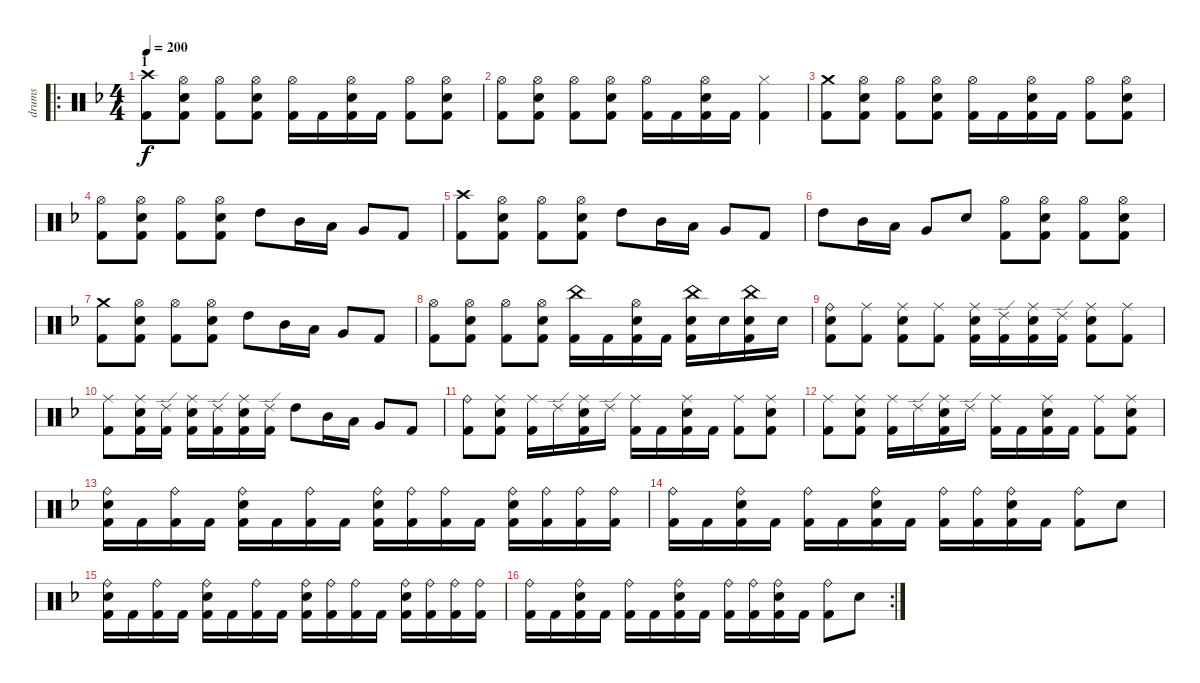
\track ("drums" "drums") {instrument percussion}
\staff {score}
\articulation defaults
\ro
\ts (4 4)
\section ("" "1")
\tempo 200
\clef neutral
\ks dminor
("Crash high (hit)" "Kick (hit) 2").8{dy f} ("Hi-Hat (open)" "Electric Snare (hit)" "Kick (hit) 2").8 ("Hi-Hat (open)" "Kick (hit) 2").8 ("Hi-Hat (open)" "Electric Snare (hit)" "Kick (hit) 2").8 ("Hi-Hat (open)" "Kick (hit) 2").16 "Kick (hit) 2".16 ("Hi-Hat (open)" "Electric Snare (hit)" "Kick (hit) 2").16 "Kick (hit) 2".16 ("Hi-Hat (open)" "Kick (hit) 2").8 ("Hi-Hat (open)" "Electric Snare (hit)" "Kick (hit) 2").8 |
("Hi-Hat (open)" "Kick (hit) 2").8 ("Hi-Hat (open)" "Electric Snare (hit)" "Kick (hit) 2").8 ("Hi-Hat (open)" "Kick (hit) 2").8 ("Hi-Hat (open)" "Electric Snare (hit)" "Kick (hit) 2").8 ("Hi-Hat (open)" "Kick (hit) 2").16 "Kick (hit) 2".16 ("Hi-Hat (open)" "Electric Snare (hit)" "Kick (hit) 2").16 "Kick (hit) 2".16 ("Hi-Hat (closed)" "Kick (hit) 2").4 |
("Crash medium (hit)" "Kick (hit) 2").8 ("Hi-Hat (open)" "Electric Snare (hit)" "Kick (hit) 2").8 ("Hi-Hat (open)" "Kick (hit) 2").8 ("Hi-Hat (open)" "Electric Snare (hit)" "Kick (hit) 2").8 ("Hi-Hat (open)" "Kick (hit) 2").16 "Kick (hit) 2".16 ("Hi-Hat (open)" "Electric Snare (hit)" "Kick (hit) 2").16 "Kick (hit) 2".16 ("Hi-Hat (open)" "Kick (hit) 2").8 ("Hi-Hat (open)" "Electric Snare (hit)" "Kick (hit) 2").8 |
("Hi-Hat (open)" "Kick (hit) 2").8 ("Hi-Hat (open)" "Electric Snare (hit)" "Kick (hit) 2").8 ("Hi-Hat (open)" "Kick (hit) 2").8 ("Hi-Hat (open)" "Electric Snare (hit)" "Kick (hit) 2").8 "High Tom (hit)".8 "Mid Tom (hit)".16 "Low Tom (hit)".16 "Very Low Tom (hit)".8 "Kick (hit) 2".8 |
("Crash high (hit)" "Kick (hit) 2").8 ("Hi-Hat (open)" "Electric Snare (hit)" "Kick (hit) 2").8 ("Hi-Hat (open)" "Kick (hit) 2").8 ("Hi-Hat (open)" "Electric Snare (hit)" "Kick (hit) 2").8 "High Tom (hit)".8 "Mid Tom (hit)".16 "Low Tom (hit)".16 "Very Low Tom (hit)".8 "Kick (hit) 2".8 |
"High Tom (hit)".8 "Mid Tom (hit)".16 "Low Tom (hit)".16 "Very Low Tom (hit)".8 "Electric Snare (hit)".8 ("Hi-Hat (open)" "Kick (hit) 2").8 ("Hi-Hat (open)" "Electric Snare (hit)" "Kick (hit) 2").8 ("Hi-Hat (open)" "Kick (hit) 2").8 ("Hi-Hat (open)" "Electric Snare (hit)" "Kick (hit) 2").8 |
("Crash medium (hit)" "Kick (hit) 2").8 ("Hi-Hat (open)" "Electric Snare (hit)" "Kick (hit) 2").8 ("Hi-Hat (open)" "Kick (hit) 2").8 ("Hi-Hat (open)" "Electric Snare (hit)" "Kick (hit) 2").8 "High Tom (hit)".8 "Mid Tom (hit)".16 "Low Tom (hit)".16 "Very Low Tom (hit)".8 "Kick (hit) 2".8 |
("Hi-Hat (open)" "Kick (hit) 2").8 ("Hi-Hat (open)" "Electric Snare (hit)" "Kick (hit) 2").8 ("Hi-Hat (open)" "Kick (hit) 2").8 ("Hi-Hat (open)" "Electric Snare (hit)" "Kick (hit) 2").8 ("China (hit)" "Kick (hit) 2").16 "Kick (hit) 2".16 ("Hi-Hat (open)" "Electric Snare (hit)" "Kick (hit) 2").16 "Kick (hit) 2".16 ("China (hit)" "Electric Snare (hit)" "Kick (hit) 2").16 "Electric Snare (hit)".16 ("China (hit)" "Electric Snare (hit)" "Kick (hit) 2").16 "Electric Snare (hit)".16 |
("Ride (bell)" "Electric Snare (hit)" "Kick (hit) 2").8 ("Ride (middle)" "Kick (hit) 2").8 ("Ride (middle)" "Electric Snare (hit)" "Kick (hit) 2").8 ("Ride (middle)" "Kick (hit) 2").8 ("Ride (middle)" "Electric Snare (hit)" "Kick (hit) 2").16 ("Ride (edge) 2" "Kick (hit) 2").16 ("Ride (middle)" "Electric Snare (hit)" "Kick (hit) 2").16 ("Ride (edge) 2" "Kick (hit) 2").16 ("Ride (middle)" "Electric Snare (hit)" "Kick (hit) 2").8 ("Ride (middle)" "Kick (hit) 2").8 |
("Ride (middle)" "Kick (hit) 2").8 ("Ride (middle)" "Electric Snare (hit)" "Kick (hit) 2").16 ("Ride (edge) 2" "Kick (hit) 2").16 ("Ride (middle)" "Electric Snare (hit)" "Kick (hit) 2").16 ("Ride (edge) 2" "Kick (hit) 2").16 ("Ride (middle)" "Electric Snare (hit)" "Kick (hit) 2").16 ("Ride (edge) 2" "Kick (hit) 2").16 "High Tom (hit)".8 "Mid Tom (hit)".16 "Low Tom (hit)".16 "Very Low Tom (hit)".8 "Kick (hit) 2".8 |
("Ride (bell)" "Kick (hit) 2").8 ("Ride (middle)" "Electric Snare (hit)" "Kick (hit) 2").8 ("Ride (middle)" "Kick (hit) 2").16 "Ride (edge) 2".16 ("Ride (middle)" "Electric Snare (hit)" "Kick (hit) 2").16 "Ride (edge) 2".16 ("Ride (middle)" "Kick (hit) 2").16 "Kick (hit) 2".16 ("Ride (middle)" "Electric Snare (hit)" "Kick (hit) 2").16 "Kick (hit) 2".16 ("Ride (middle)" "Kick (hit) 2").8 ("Ride (middle)" "Electric Snare (hit)" "Kick (hit) 2").8 |
("Ride (middle)" "Kick (hit) 2").8 ("Ride (middle)" "Electric Snare (hit)" "Kick (hit) 2").8 ("Ride (middle)" "Kick (hit) 2").16 "Ride (edge) 2".16 ("Ride (middle)" "Electric Snare (hit)" "Kick (hit) 2").16 "Ride (edge) 2".16 ("Ride (middle)" "Kick (hit) 2").16 "Kick (hit) 2".16 ("Ride (middle)" "Electric Snare (hit)" "Kick (hit) 2").16 "Kick (hit) 2".16 ("Ride (middle)" "Kick (hit) 2").8 ("Ride (middle)" "Electric Snare (hit)" "Kick (hit) 2").8 |
("Ride (bell)" "Electric Snare (hit)" "Kick (hit) 2").16 "Kick (hit) 2".16 ("Ride (bell)" "Kick (hit) 2").16 "Kick (hit) 2".16 ("Ride (bell)" "Electric Snare (hit)" "Kick (hit) 2").16 "Kick (hit) 2".16 ("Ride (bell)" "Kick (hit) 2").16 "Kick (hit) 2".16 ("Ride (bell)" "Electric Snare (hit)" "Kick (hit) 2").16 ("Ride (bell)" "Kick (hit) 2").16 ("Ride (bell)" "Kick (hit) 2").16 "Kick (hit) 2".16 ("Ride (bell)" "Electric Snare (hit)" "Kick (hit) 2").16 ("Ride (bell)" "Kick (hit) 2").16 ("Ride (bell)" "Kick (hit) 2").16 ("Ride (bell)" "Kick (hit) 2").16 |
("Ride (bell)" "Kick (hit) 2").16 "Kick (hit) 2".16 ("Ride (bell)" "Electric Snare (hit)" "Kick (hit) 2").16 "Kick (hit) 2".16 ("Ride (bell)" "Kick (hit) 2").16 "Kick (hit) 2".16 ("Ride (bell)" "Electric Snare (hit)" "Kick (hit) 2").16 "Kick (hit) 2".16 ("Ride (bell)" "Kick (hit) 2").16 ("Ride (bell)" "Kick (hit) 2").16 ("Ride (bell)" "Electric Snare (hit)" "Kick (hit) 2").16 "Kick (hit) 2".16 ("Ride (bell)" "Kick (hit) 2").8 "Electric Snare (hit)".8 |
("Ride (bell)" "Electric Snare (hit)" "Kick (hit) 2").16 "Kick (hit) 2".16 ("Ride (bell)" "Kick (hit) 2").16 "Kick (hit) 2".16 ("Ride (bell)" "Electric Snare (hit)" "Kick (hit) 2").16 "Kick (hit) 2".16 ("Ride (bell)" "Kick (hit) 2").16 "Kick (hit) 2".16 ("Ride (bell)" "Electric Snare (hit)" "Kick (hit) 2").16 ("Ride (bell)" "Kick (hit) 2").16 ("Ride (bell)" "Kick (hit) 2").16 "Kick (hit) 2".16 ("Ride (bell)" "Electric Snare (hit)" "Kick (hit) 2").16 ("Ride (bell)" "Kick (hit) 2").16 ("Ride (bell)" "Kick (hit) 2").16 ("Ride (bell)" "Kick (hit) 2").16 |
\rc 2
("Ride (bell)" "Kick (hit) 2").16 "Kick (hit) 2".16 ("Ride (bell)" "Electric Snare (hit)" "Kick (hit) 2").16 "Kick (hit) 2".16 ("Ride (bell)" "Kick (hit) 2").16 "Kick (hit) 2".16 ("Ride (bell)" "Electric Snare (hit)" "Kick (hit) 2").16 "Kick (hit) 2".16 ("Ride (bell)" "Kick (hit) 2").16 ("Ride (bell)" "Kick (hit) 2").16 ("Ride (bell)" "Electric Snare (hit)" "Kick (hit) 2").16 "Kick (hit) 2".16 ("Ride (bell)" "Kick (hit) 2").8 "Electric Snare (hit)".8
